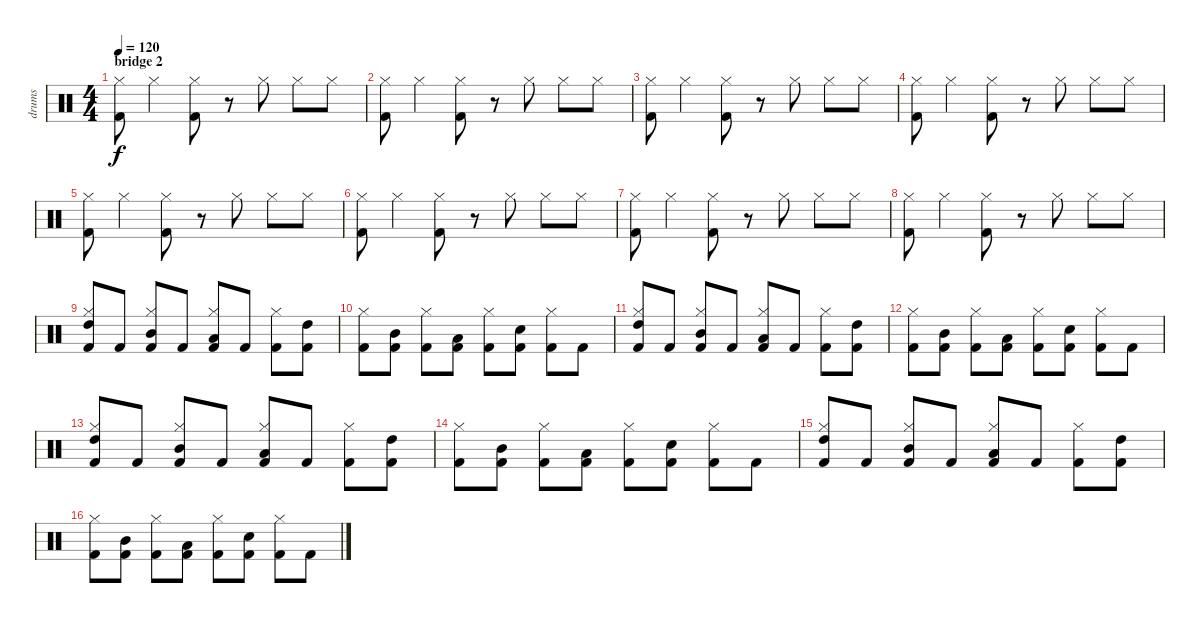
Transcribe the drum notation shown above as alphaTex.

\track ("drums" "drums") {instrument percussion}
\staff {score}
\articulation defaults
\ts (4 4)
\section ("" "bridge 2")
\tempo 120
\clef neutral
\ks c
("Kick (hit) 2" "Hi-Hat (closed)").8{dy f} "Hi-Hat (closed)".4 ("Kick (hit) 2" "Hi-Hat (closed)").8 r.8 "Hi-Hat (closed)".8 "Hi-Hat (closed)".8 "Hi-Hat (closed)".8 |
("Kick (hit) 2" "Hi-Hat (closed)").8 "Hi-Hat (closed)".4 ("Kick (hit) 2" "Hi-Hat (closed)").8 r.8 "Hi-Hat (closed)".8 "Hi-Hat (closed)".8 "Hi-Hat (closed)".8 |
("Kick (hit) 2" "Hi-Hat (closed)").8 "Hi-Hat (closed)".4 ("Kick (hit) 2" "Hi-Hat (closed)").8 r.8 "Hi-Hat (closed)".8 "Hi-Hat (closed)".8 "Hi-Hat (closed)".8 |
("Kick (hit) 2" "Hi-Hat (closed)").8 "Hi-Hat (closed)".4 ("Kick (hit) 2" "Hi-Hat (closed)").8 r.8 "Hi-Hat (closed)".8 "Hi-Hat (closed)".8 "Hi-Hat (closed)".8 |
("Kick (hit) 2" "Hi-Hat (closed)").8 "Hi-Hat (closed)".4 ("Kick (hit) 2" "Hi-Hat (closed)").8 r.8 "Hi-Hat (closed)".8 "Hi-Hat (closed)".8 "Hi-Hat (closed)".8 |
("Kick (hit) 2" "Hi-Hat (closed)").8 "Hi-Hat (closed)".4 ("Kick (hit) 2" "Hi-Hat (closed)").8 r.8 "Hi-Hat (closed)".8 "Hi-Hat (closed)".8 "Hi-Hat (closed)".8 |
("Kick (hit) 2" "Hi-Hat (closed)").8 "Hi-Hat (closed)".4 ("Kick (hit) 2" "Hi-Hat (closed)").8 r.8 "Hi-Hat (closed)".8 "Hi-Hat (closed)".8 "Hi-Hat (closed)".8 |
("Kick (hit) 2" "Hi-Hat (closed)").8 "Hi-Hat (closed)".4 ("Kick (hit) 2" "Hi-Hat (closed)").8 r.8 "Hi-Hat (closed)".8 "Hi-Hat (closed)".8 "Hi-Hat (closed)".8 |
("Kick (hit) 2" "High Tom (hit)" "Hi-Hat (closed)").8 "Kick (hit) 2".8 ("Kick (hit) 2" "Mid Tom (hit)" "Hi-Hat (closed)").8 "Kick (hit) 2".8 ("Kick (hit) 2" "Low Tom (hit)" "Hi-Hat (closed)").8 "Kick (hit) 2".8 ("Kick (hit) 2" "Hi-Hat (closed)").8 ("Kick (hit) 2" "High Tom (hit)").8 |
("Kick (hit) 2" "Hi-Hat (closed)").8 ("Kick (hit) 2" "Mid Tom (hit)").8 ("Kick (hit) 2" "Hi-Hat (closed)").8 ("Kick (hit) 2" "Low Tom (hit)").8 ("Kick (hit) 2" "Hi-Hat (closed)").8 ("Snare (hit) 2" "Kick (hit) 2").8 ("Kick (hit) 2" "Hi-Hat (closed)").8 "Kick (hit) 2".8 |
("Kick (hit) 2" "High Tom (hit)" "Hi-Hat (closed)").8 "Kick (hit) 2".8 ("Kick (hit) 2" "Mid Tom (hit)" "Hi-Hat (closed)").8 "Kick (hit) 2".8 ("Kick (hit) 2" "Low Tom (hit)" "Hi-Hat (closed)").8 "Kick (hit) 2".8 ("Kick (hit) 2" "Hi-Hat (closed)").8 ("Kick (hit) 2" "High Tom (hit)").8 |
("Kick (hit) 2" "Hi-Hat (closed)").8 ("Kick (hit) 2" "Mid Tom (hit)").8 ("Kick (hit) 2" "Hi-Hat (closed)").8 ("Kick (hit) 2" "Low Tom (hit)").8 ("Kick (hit) 2" "Hi-Hat (closed)").8 ("Snare (hit) 2" "Kick (hit) 2").8 ("Kick (hit) 2" "Hi-Hat (closed)").8 "Kick (hit) 2".8 |
("Kick (hit) 2" "High Tom (hit)" "Hi-Hat (closed)").8 "Kick (hit) 2".8 ("Kick (hit) 2" "Mid Tom (hit)" "Hi-Hat (closed)").8 "Kick (hit) 2".8 ("Kick (hit) 2" "Low Tom (hit)" "Hi-Hat (closed)").8 "Kick (hit) 2".8 ("Kick (hit) 2" "Hi-Hat (closed)").8 ("Kick (hit) 2" "High Tom (hit)").8 |
("Kick (hit) 2" "Hi-Hat (closed)").8 ("Kick (hit) 2" "Mid Tom (hit)").8 ("Kick (hit) 2" "Hi-Hat (closed)").8 ("Kick (hit) 2" "Low Tom (hit)").8 ("Kick (hit) 2" "Hi-Hat (closed)").8 ("Snare (hit) 2" "Kick (hit) 2").8 ("Kick (hit) 2" "Hi-Hat (closed)").8 "Kick (hit) 2".8 |
("Kick (hit) 2" "High Tom (hit)" "Hi-Hat (closed)").8 "Kick (hit) 2".8 ("Kick (hit) 2" "Mid Tom (hit)" "Hi-Hat (closed)").8 "Kick (hit) 2".8 ("Kick (hit) 2" "Low Tom (hit)" "Hi-Hat (closed)").8 "Kick (hit) 2".8 ("Kick (hit) 2" "Hi-Hat (closed)").8 ("Kick (hit) 2" "High Tom (hit)").8 |
("Kick (hit) 2" "Hi-Hat (closed)").8 ("Kick (hit) 2" "Mid Tom (hit)").8 ("Kick (hit) 2" "Hi-Hat (closed)").8 ("Kick (hit) 2" "Low Tom (hit)").8 ("Kick (hit) 2" "Hi-Hat (closed)").8 ("Snare (hit) 2" "Kick (hit) 2").8 ("Kick (hit) 2" "Hi-Hat (closed)").8 "Kick (hit) 2".8
